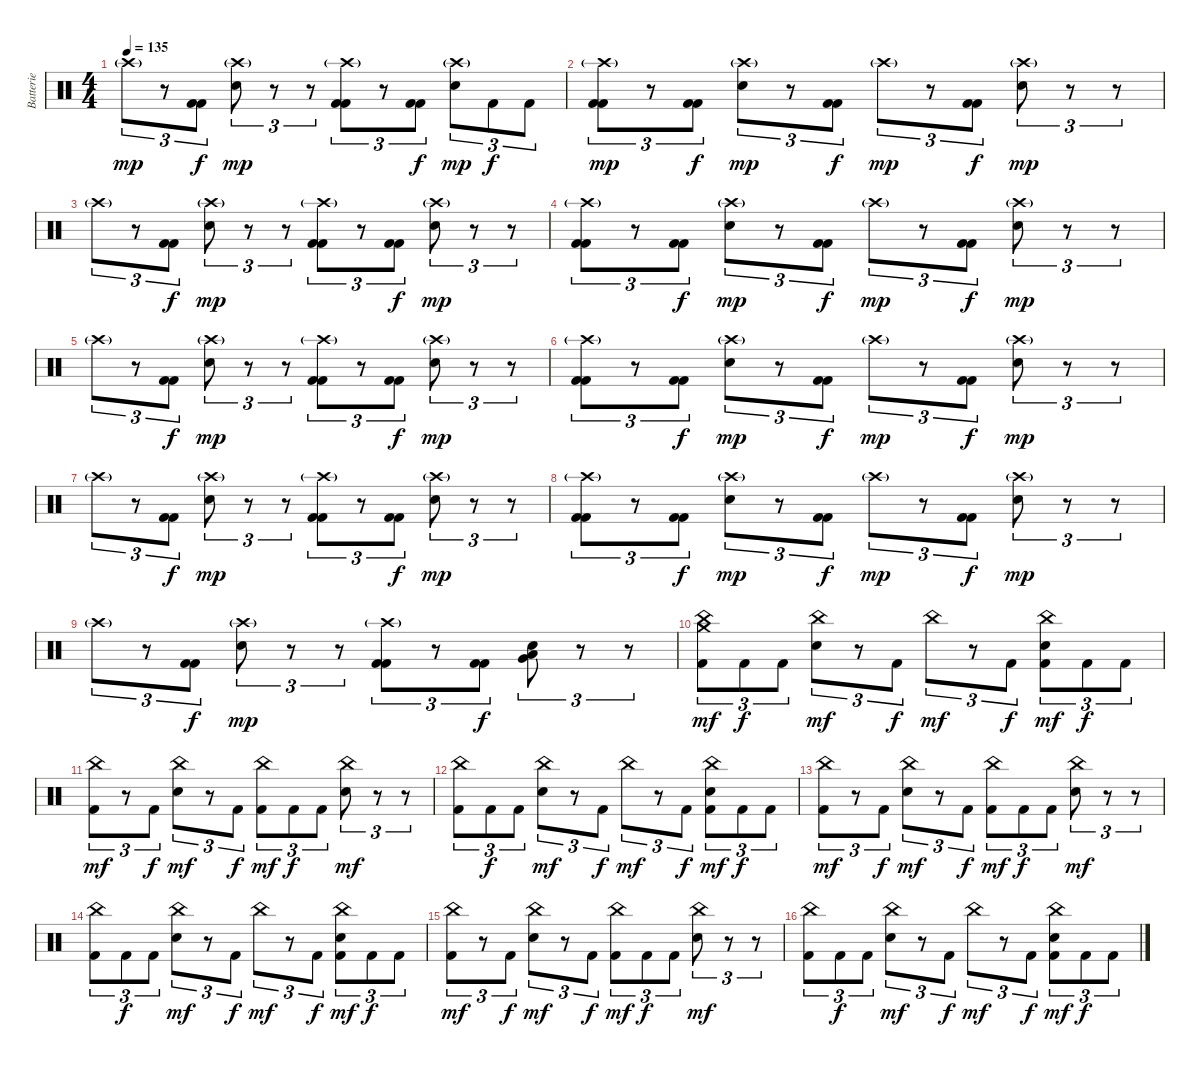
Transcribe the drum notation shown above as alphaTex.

\track ("Batterie" "Batterie") {instrument percussion}
\staff {score}
\articulation defaults
\ts (4 4)
\tempo 135
\clef neutral
\ks c "Crash high (hit)"{g}.8{tu (3 2) dy mp}
r.8{tu (3 2)} ("Kick (hit) 2" "Kick (hit) 2").8{tu (3 2) dy f} ("Crash high (hit)"{g} "Electric Snare (hit)").8{tu (3 2) dy mp} r.8{tu (3 2)} r.8{tu (3 2)} ("Crash high (hit)"{g} "Kick (hit) 2" "Kick (hit) 2").8{tu (3 2)} r.8{tu (3 2)} ("Kick (hit) 2" "Kick (hit) 2").8{tu (3 2) dy f} ("Crash high (hit)"{g} "Electric Snare (hit)").8{tu (3 2) dy mp} "Kick (hit) 2".8{tu (3 2) dy f} "Kick (hit) 2".8{tu (3 2)} |
("Crash high (hit)"{g} "Kick (hit) 2" "Kick (hit) 2").8{tu (3 2) dy mp} r.8{tu (3 2)} ("Kick (hit) 2" "Kick (hit) 2").8{tu (3 2) dy f} ("Crash high (hit)"{g} "Electric Snare (hit)").8{tu (3 2) dy mp} r.8{tu (3 2)} ("Kick (hit) 2" "Kick (hit) 2").8{tu (3 2) dy f} "Crash high (hit)"{g}.8{tu (3 2) dy mp} r.8{tu (3 2)} ("Kick (hit) 2" "Kick (hit) 2").8{tu (3 2) dy f} ("Crash high (hit)"{g} "Electric Snare (hit)").8{tu (3 2) dy mp} r.8{tu (3 2)} r.8{tu (3 2)} |
"Crash high (hit)"{g}.8{tu (3 2)} r.8{tu (3 2)} ("Kick (hit) 2" "Kick (hit) 2").8{tu (3 2) dy f} ("Crash high (hit)"{g} "Electric Snare (hit)").8{tu (3 2) dy mp} r.8{tu (3 2)} r.8{tu (3 2)} ("Crash high (hit)"{g} "Kick (hit) 2" "Kick (hit) 2").8{tu (3 2)} r.8{tu (3 2)} ("Kick (hit) 2" "Kick (hit) 2").8{tu (3 2) dy f} ("Crash high (hit)"{g} "Electric Snare (hit)").8{tu (3 2) dy mp} r.8{tu (3 2)} r.8{tu (3 2)} |
("Crash high (hit)"{g} "Kick (hit) 2" "Kick (hit) 2").8{tu (3 2)} r.8{tu (3 2)} ("Kick (hit) 2" "Kick (hit) 2").8{tu (3 2) dy f} ("Crash high (hit)"{g} "Electric Snare (hit)").8{tu (3 2) dy mp} r.8{tu (3 2)} ("Kick (hit) 2" "Kick (hit) 2").8{tu (3 2) dy f} "Crash high (hit)"{g}.8{tu (3 2) dy mp} r.8{tu (3 2)} ("Kick (hit) 2" "Kick (hit) 2").8{tu (3 2) dy f} ("Crash high (hit)"{g} "Electric Snare (hit)").8{tu (3 2) dy mp} r.8{tu (3 2)} r.8{tu (3 2)} |
"Crash high (hit)"{g}.8{tu (3 2)} r.8{tu (3 2)} ("Kick (hit) 2" "Kick (hit) 2").8{tu (3 2) dy f} ("Crash high (hit)"{g} "Electric Snare (hit)").8{tu (3 2) dy mp} r.8{tu (3 2)} r.8{tu (3 2)} ("Crash high (hit)"{g} "Kick (hit) 2" "Kick (hit) 2").8{tu (3 2)} r.8{tu (3 2)} ("Kick (hit) 2" "Kick (hit) 2").8{tu (3 2) dy f} ("Crash high (hit)"{g} "Electric Snare (hit)").8{tu (3 2) dy mp} r.8{tu (3 2)} r.8{tu (3 2)} |
("Crash high (hit)"{g} "Kick (hit) 2" "Kick (hit) 2").8{tu (3 2)} r.8{tu (3 2)} ("Kick (hit) 2" "Kick (hit) 2").8{tu (3 2) dy f} ("Crash high (hit)"{g} "Electric Snare (hit)").8{tu (3 2) dy mp} r.8{tu (3 2)} ("Kick (hit) 2" "Kick (hit) 2").8{tu (3 2) dy f} "Crash high (hit)"{g}.8{tu (3 2) dy mp} r.8{tu (3 2)} ("Kick (hit) 2" "Kick (hit) 2").8{tu (3 2) dy f} ("Crash high (hit)"{g} "Electric Snare (hit)").8{tu (3 2) dy mp} r.8{tu (3 2)} r.8{tu (3 2)} |
"Crash high (hit)"{g}.8{tu (3 2)} r.8{tu (3 2)} ("Kick (hit) 2" "Kick (hit) 2").8{tu (3 2) dy f} ("Crash high (hit)"{g} "Electric Snare (hit)").8{tu (3 2) dy mp} r.8{tu (3 2)} r.8{tu (3 2)} ("Crash high (hit)"{g} "Kick (hit) 2" "Kick (hit) 2").8{tu (3 2)} r.8{tu (3 2)} ("Kick (hit) 2" "Kick (hit) 2").8{tu (3 2) dy f} ("Crash high (hit)"{g} "Electric Snare (hit)").8{tu (3 2) dy mp} r.8{tu (3 2)} r.8{tu (3 2)} |
("Crash high (hit)"{g} "Kick (hit) 2" "Kick (hit) 2").8{tu (3 2)} r.8{tu (3 2)} ("Kick (hit) 2" "Kick (hit) 2").8{tu (3 2) dy f} ("Crash high (hit)"{g} "Electric Snare (hit)").8{tu (3 2) dy mp} r.8{tu (3 2)} ("Kick (hit) 2" "Kick (hit) 2").8{tu (3 2) dy f} "Crash high (hit)"{g}.8{tu (3 2) dy mp} r.8{tu (3 2)} ("Kick (hit) 2" "Kick (hit) 2").8{tu (3 2) dy f} ("Crash high (hit)"{g} "Electric Snare (hit)").8{tu (3 2) dy mp} r.8{tu (3 2)} r.8{tu (3 2)} |
"Crash high (hit)"{g}.8{tu (3 2)} r.8{tu (3 2)} ("Kick (hit) 2" "Kick (hit) 2").8{tu (3 2) dy f} ("Crash high (hit)"{g} "Electric Snare (hit)").8{tu (3 2) dy mp} r.8{tu (3 2)} r.8{tu (3 2)} ("Crash high (hit)"{g} "Kick (hit) 2" "Kick (hit) 2").8{tu (3 2)} r.8{tu (3 2)} ("Kick (hit) 2" "Kick (hit) 2").8{tu (3 2) dy f} ("Electric Snare (hit)" "Very Low Tom (hit)" "Low Floor Tom (hit)").8{tu (3 2)} r.8{tu (3 2)} r.8{tu (3 2)} |
("Crash medium (hit)" "China (hit)" "Kick (hit) 2").8{tu (3 2) dy mf} "Kick (hit) 2".8{tu (3 2) dy f} "Kick (hit) 2".8{tu (3 2)} ("China (hit)" "Electric Snare (hit)").8{tu (3 2) dy mf} r.8{tu (3 2)} "Kick (hit) 2".8{tu (3 2) dy f} "China (hit)".8{tu (3 2) dy mf} r.8{tu (3 2)} "Kick (hit) 2".8{tu (3 2) dy f} ("China (hit)" "Electric Snare (hit)" "Kick (hit) 2").8{tu (3 2) dy mf} "Kick (hit) 2".8{tu (3 2) dy f} "Kick (hit) 2".8{tu (3 2)} |
("China (hit)" "Kick (hit) 2").8{tu (3 2) dy mf} r.8{tu (3 2)} "Kick (hit) 2".8{tu (3 2) dy f} ("China (hit)" "Electric Snare (hit)").8{tu (3 2) dy mf} r.8{tu (3 2)} "Kick (hit) 2".8{tu (3 2) dy f} ("China (hit)" "Kick (hit) 2").8{tu (3 2) dy mf} "Kick (hit) 2".8{tu (3 2) dy f} "Kick (hit) 2".8{tu (3 2)} ("China (hit)" "Electric Snare (hit)").8{tu (3 2) dy mf} r.8{tu (3 2)} r.8{tu (3 2)} |
("China (hit)" "Kick (hit) 2").8{tu (3 2)} "Kick (hit) 2".8{tu (3 2) dy f} "Kick (hit) 2".8{tu (3 2)} ("China (hit)" "Electric Snare (hit)").8{tu (3 2) dy mf} r.8{tu (3 2)} "Kick (hit) 2".8{tu (3 2) dy f} "China (hit)".8{tu (3 2) dy mf} r.8{tu (3 2)} "Kick (hit) 2".8{tu (3 2) dy f} ("China (hit)" "Electric Snare (hit)" "Kick (hit) 2").8{tu (3 2) dy mf} "Kick (hit) 2".8{tu (3 2) dy f} "Kick (hit) 2".8{tu (3 2)} |
("China (hit)" "Kick (hit) 2").8{tu (3 2) dy mf} r.8{tu (3 2)} "Kick (hit) 2".8{tu (3 2) dy f} ("China (hit)" "Electric Snare (hit)").8{tu (3 2) dy mf} r.8{tu (3 2)} "Kick (hit) 2".8{tu (3 2) dy f} ("China (hit)" "Kick (hit) 2").8{tu (3 2) dy mf} "Kick (hit) 2".8{tu (3 2) dy f} "Kick (hit) 2".8{tu (3 2)} ("China (hit)" "Electric Snare (hit)").8{tu (3 2) dy mf} r.8{tu (3 2)} r.8{tu (3 2)} |
("China (hit)" "Kick (hit) 2").8{tu (3 2)} "Kick (hit) 2".8{tu (3 2) dy f} "Kick (hit) 2".8{tu (3 2)} ("China (hit)" "Electric Snare (hit)").8{tu (3 2) dy mf} r.8{tu (3 2)} "Kick (hit) 2".8{tu (3 2) dy f} "China (hit)".8{tu (3 2) dy mf} r.8{tu (3 2)} "Kick (hit) 2".8{tu (3 2) dy f} ("China (hit)" "Electric Snare (hit)" "Kick (hit) 2").8{tu (3 2) dy mf} "Kick (hit) 2".8{tu (3 2) dy f} "Kick (hit) 2".8{tu (3 2)} |
("China (hit)" "Kick (hit) 2").8{tu (3 2) dy mf} r.8{tu (3 2)} "Kick (hit) 2".8{tu (3 2) dy f} ("China (hit)" "Electric Snare (hit)").8{tu (3 2) dy mf} r.8{tu (3 2)} "Kick (hit) 2".8{tu (3 2) dy f} ("China (hit)" "Kick (hit) 2").8{tu (3 2) dy mf} "Kick (hit) 2".8{tu (3 2) dy f} "Kick (hit) 2".8{tu (3 2)} ("China (hit)" "Electric Snare (hit)").8{tu (3 2) dy mf} r.8{tu (3 2)} r.8{tu (3 2)} |
("China (hit)" "Kick (hit) 2").8{tu (3 2)} "Kick (hit) 2".8{tu (3 2) dy f} "Kick (hit) 2".8{tu (3 2)} ("China (hit)" "Electric Snare (hit)").8{tu (3 2) dy mf} r.8{tu (3 2)} "Kick (hit) 2".8{tu (3 2) dy f} "China (hit)".8{tu (3 2) dy mf} r.8{tu (3 2)} "Kick (hit) 2".8{tu (3 2) dy f} ("China (hit)" "Electric Snare (hit)" "Kick (hit) 2").8{tu (3 2) dy mf} "Kick (hit) 2".8{tu (3 2) dy f} "Kick (hit) 2".8{tu (3 2)}
